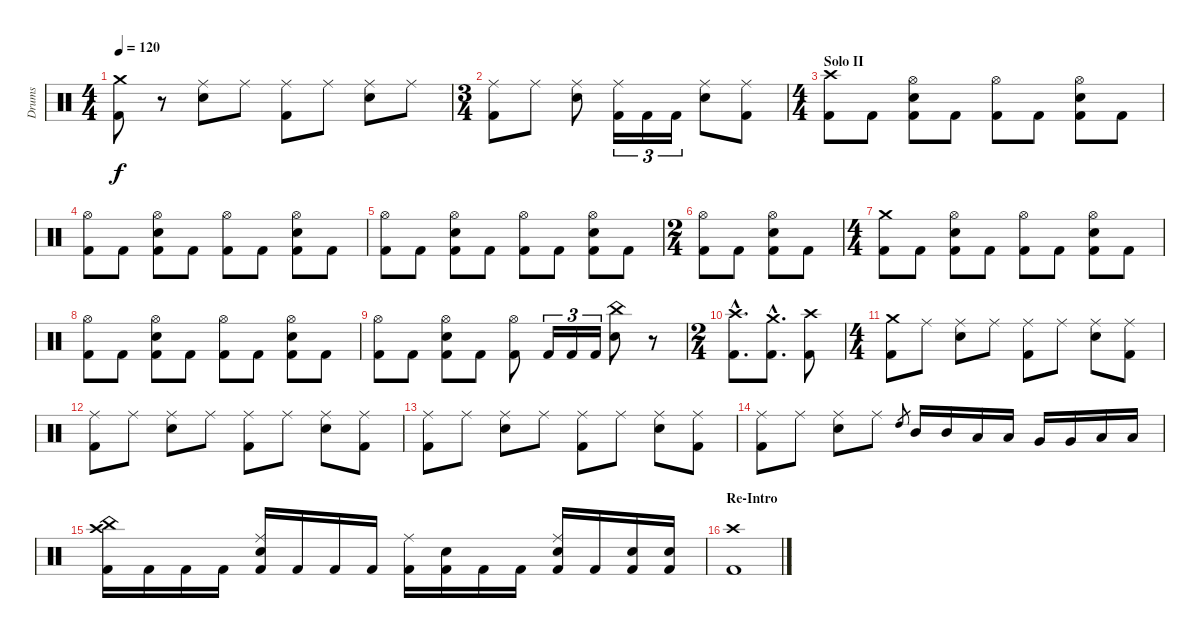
\track ("Drums" "Drums") {instrument percussion}
\staff {score}
\articulation defaults
\ts (4 4)
\tempo 120
\clef neutral
\ks c
("Crash medium (hit)" "Kick (hit) 2").8{dy f} r.8 ("Ride (middle)" "Snare (hit) 2").8 "Ride (middle)".8 ("Ride (middle)" "Kick (hit) 2").8 "Ride (middle)".8 ("Ride (middle)" "Snare (hit) 2").8 "Ride (middle)".8 |
\ts (3 4)
("Ride (middle)" "Kick (hit) 2").8 "Ride (middle)".8 ("Ride (middle)" "Snare (hit) 2").8 ("Ride (middle)" "Kick (hit) 2").16{tu (3 2)} "Kick (hit) 2".16{tu (3 2)} "Kick (hit) 2".16{tu (3 2)} ("Ride (middle)" "Snare (hit) 2").8 ("Ride (middle)" "Kick (hit) 2").8 |
\ts (4 4)
\section ("" "Solo II")
("Crash high (hit)" "Kick (hit) 2").8 "Kick (hit) 2".8 ("Hi-Hat (open)" "Snare (hit) 2" "Kick (hit) 2").8 "Kick (hit) 2".8 ("Hi-Hat (open)" "Kick (hit) 2").8 "Kick (hit) 2".8 ("Hi-Hat (open)" "Snare (hit) 2" "Kick (hit) 2").8 "Kick (hit) 2".8 |
("Hi-Hat (open)" "Kick (hit) 2").8 "Kick (hit) 2".8 ("Hi-Hat (open)" "Snare (hit) 2" "Kick (hit) 2").8 "Kick (hit) 2".8 ("Hi-Hat (open)" "Kick (hit) 2").8 "Kick (hit) 2".8 ("Hi-Hat (open)" "Snare (hit) 2" "Kick (hit) 2").8 "Kick (hit) 2".8 |
("Hi-Hat (open)" "Kick (hit) 2").8 "Kick (hit) 2".8 ("Hi-Hat (open)" "Snare (hit) 2" "Kick (hit) 2").8 "Kick (hit) 2".8 ("Hi-Hat (open)" "Kick (hit) 2").8 "Kick (hit) 2".8 ("Hi-Hat (open)" "Snare (hit) 2" "Kick (hit) 2").8 "Kick (hit) 2".8 |
\ts (2 4)
("Hi-Hat (open)" "Kick (hit) 2").8 "Kick (hit) 2".8 ("Hi-Hat (open)" "Snare (hit) 2" "Kick (hit) 2").8 "Kick (hit) 2".8 |
\ts (4 4)
("Crash medium (hit)" "Kick (hit) 2").8 "Kick (hit) 2".8 ("Hi-Hat (open)" "Snare (hit) 2" "Kick (hit) 2").8 "Kick (hit) 2".8 ("Hi-Hat (open)" "Kick (hit) 2").8 "Kick (hit) 2".8 ("Hi-Hat (open)" "Snare (hit) 2" "Kick (hit) 2").8 "Kick (hit) 2".8 |
("Hi-Hat (open)" "Kick (hit) 2").8 "Kick (hit) 2".8 ("Hi-Hat (open)" "Snare (hit) 2" "Kick (hit) 2").8 "Kick (hit) 2".8 ("Hi-Hat (open)" "Kick (hit) 2").8 "Kick (hit) 2".8 ("Hi-Hat (open)" "Snare (hit) 2" "Kick (hit) 2").8 "Kick (hit) 2".8 |
("Hi-Hat (open)" "Kick (hit) 2").8 "Kick (hit) 2".8 ("Hi-Hat (open)" "Snare (hit) 2" "Kick (hit) 2").8 "Kick (hit) 2".8 ("Hi-Hat (open)" "Kick (hit) 2").8 "Kick (hit) 2".16{tu (3 2)} "Kick (hit) 2".16{tu (3 2)} "Kick (hit) 2".16{tu (3 2)} ("China (hit)" "Snare (hit) 2").8 r.8 |
\ts (2 4)
("Crash high (hit)"{hac} "Kick (hit) 2"{hac}).8{d} ("Crash medium (hit)"{hac} "Kick (hit) 2"{hac}).8{d} ("Crash high (hit)" "Kick (hit) 2").8 |
\ts (4 4)
("Crash medium (hit)" "Kick (hit) 2").8 "Ride (middle)".8 ("Ride (middle)" "Snare (hit) 2").8 "Ride (middle)".8 ("Ride (middle)" "Kick (hit) 2").8 "Ride (middle)".8 ("Ride (middle)" "Snare (hit) 2").8 ("Ride (middle)" "Kick (hit) 2").8 |
("Ride (middle)" "Kick (hit) 2").8 "Ride (middle)".8 ("Ride (middle)" "Snare (hit) 2").8 "Ride (middle)".8 ("Ride (middle)" "Kick (hit) 2").8 "Ride (middle)".8 ("Ride (middle)" "Snare (hit) 2").8 ("Ride (middle)" "Kick (hit) 2").8 |
("Ride (middle)" "Kick (hit) 2").8 "Ride (middle)".8 ("Ride (middle)" "Snare (hit) 2").8 "Ride (middle)".8 ("Ride (middle)" "Kick (hit) 2").8 "Ride (middle)".8 ("Ride (middle)" "Snare (hit) 2").8 ("Ride (middle)" "Kick (hit) 2").8 |
("Ride (middle)" "Kick (hit) 2").8 "Ride (middle)".8 ("Ride (middle)" "Snare (hit) 2").8 "Ride (middle)".8 "High Tom (hit)".8{gr} "Mid Tom (hit)".16 "Mid Tom (hit)".16 "Low Tom (hit)".16 "Low Tom (hit)".16 "Very Low Tom (hit)".16 "Very Low Tom (hit)".16 "Low Floor Tom (hit)".16 "Low Floor Tom (hit)".16 |
("Crash high (hit)" "China (hit)" "Kick (hit) 2").16 "Kick (hit) 2".16 "Kick (hit) 2".16 "Kick (hit) 2".16 ("Ride (middle)" "Snare (hit) 2" "Kick (hit) 2").16 "Kick (hit) 2".16 "Kick (hit) 2".16 "Kick (hit) 2".16 ("Ride (middle)" "Kick (hit) 2").16 ("Snare (hit) 2" "Kick (hit) 2").16 "Kick (hit) 2".16 "Kick (hit) 2".16 ("Ride (middle)" "Snare (hit) 2" "Kick (hit) 2").16 "Kick (hit) 2".16 ("Snare (hit) 2" "Kick (hit) 2").16 ("Snare (hit) 2" "Kick (hit) 2").16 |
\section ("" "Re-Intro")
("Crash high (hit)" "Kick (hit) 2").1
